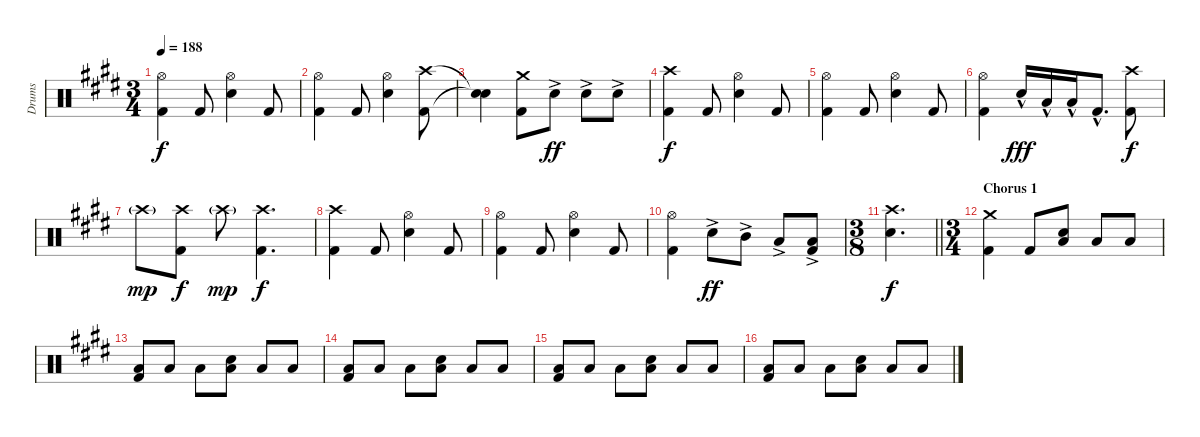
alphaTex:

\track ("Drums" "Drums") {instrument percussion}
\staff {score}
\articulation defaults
\ts (3 4)
\tempo 188
\clef neutral
\ks e
("Hi-Hat (open)" "Kick (hit) 2").4{dy f} "Kick (hit) 2".8 ("Hi-Hat (open)" "Electric Snare (hit)").4 "Kick (hit) 2".8 |
("Hi-Hat (open)" "Kick (hit) 2").4 "Kick (hit) 2".8 ("Hi-Hat (open)" "Electric Snare (hit)").4 ("Crash high (hit)" "Kick (hit) 2").8 |
("Snare (hit)"{t} "Snare (hit)"{t}).4 ("Crash medium (hit)" "Kick (hit) 2").8 "Electric Snare (hit)"{ac}.8{dy ff} "Electric Snare (hit)"{ac}.8 "Electric Snare (hit)"{ac}.8 |
("Crash high (hit)" "Kick (hit) 2").4{dy f} "Kick (hit) 2".8 ("Hi-Hat (open)" "Electric Snare (hit)").4 "Kick (hit) 2".8 |
("Hi-Hat (open)" "Kick (hit) 2").4 "Kick (hit) 2".8 ("Hi-Hat (open)" "Electric Snare (hit)").4 "Kick (hit) 2".8 |
("Hi-Hat (open)" "Kick (hit) 2").4 "Electric Snare (hit)"{hac}.16{dy fff} "Low Tom (hit)"{hac}.16 "Low Tom (hit)"{hac}.16 "Kick (hit) 2"{hac}.8{d} ("Crash high (hit)" "Kick (hit) 2").8{dy f} |
"Crash high (hit)"{g}.8{dy mp} ("Crash high (hit)" "Kick (hit) 2").8{dy f} "Crash high (hit)"{g}.8{dy mp} ("Crash high (hit)" "Kick (hit) 2").4{d dy f} |
("Crash high (hit)" "Kick (hit) 2").4 "Kick (hit) 2".8 ("Hi-Hat (open)" "Electric Snare (hit)").4 "Kick (hit) 2".8 |
("Hi-Hat (open)" "Kick (hit) 2").4 "Kick (hit) 2".8 ("Hi-Hat (open)" "Electric Snare (hit)").4 "Kick (hit) 2".8 |
("Hi-Hat (open)" "Kick (hit) 2").4 "Electric Snare (hit)"{ac}.8{dy ff} "Mid Tom (hit)"{ac}.8 "Low Tom (hit)"{ac}.8 ("Low Tom (hit)"{ac} "Kick (hit) 2"{ac}).8 |
\ts (3 8)
\barLineRight lightlight
("Crash high (hit)" "Electric Snare (hit)").4{d dy f} |
\ts (3 4)
\section ("" "Chorus 1")
("Crash medium (hit)" "Kick (hit) 2").4 "Kick (hit) 2".8 ("Electric Snare (hit)" "Low Floor Tom (hit)").8 "Low Floor Tom (hit)".8 "Low Floor Tom (hit)".8 |
("Low Floor Tom (hit)" "Kick (hit) 2").8 "Low Floor Tom (hit)".8 "Low Floor Tom (hit)".8 ("Electric Snare (hit)" "Low Floor Tom (hit)").8 "Low Floor Tom (hit)".8 "Low Floor Tom (hit)".8 |
("Low Floor Tom (hit)" "Kick (hit) 2").8 "Low Floor Tom (hit)".8 "Low Floor Tom (hit)".8 ("Electric Snare (hit)" "Low Floor Tom (hit)").8 "Low Floor Tom (hit)".8 "Low Floor Tom (hit)".8 |
("Low Floor Tom (hit)" "Kick (hit) 2").8 "Low Floor Tom (hit)".8 "Low Floor Tom (hit)".8 ("Electric Snare (hit)" "Low Floor Tom (hit)").8 "Low Floor Tom (hit)".8 "Low Floor Tom (hit)".8 |
("Low Floor Tom (hit)" "Kick (hit) 2").8 "Low Floor Tom (hit)".8 "Low Floor Tom (hit)".8 ("Electric Snare (hit)" "Low Floor Tom (hit)").8 "Low Floor Tom (hit)".8 "Low Floor Tom (hit)".8
